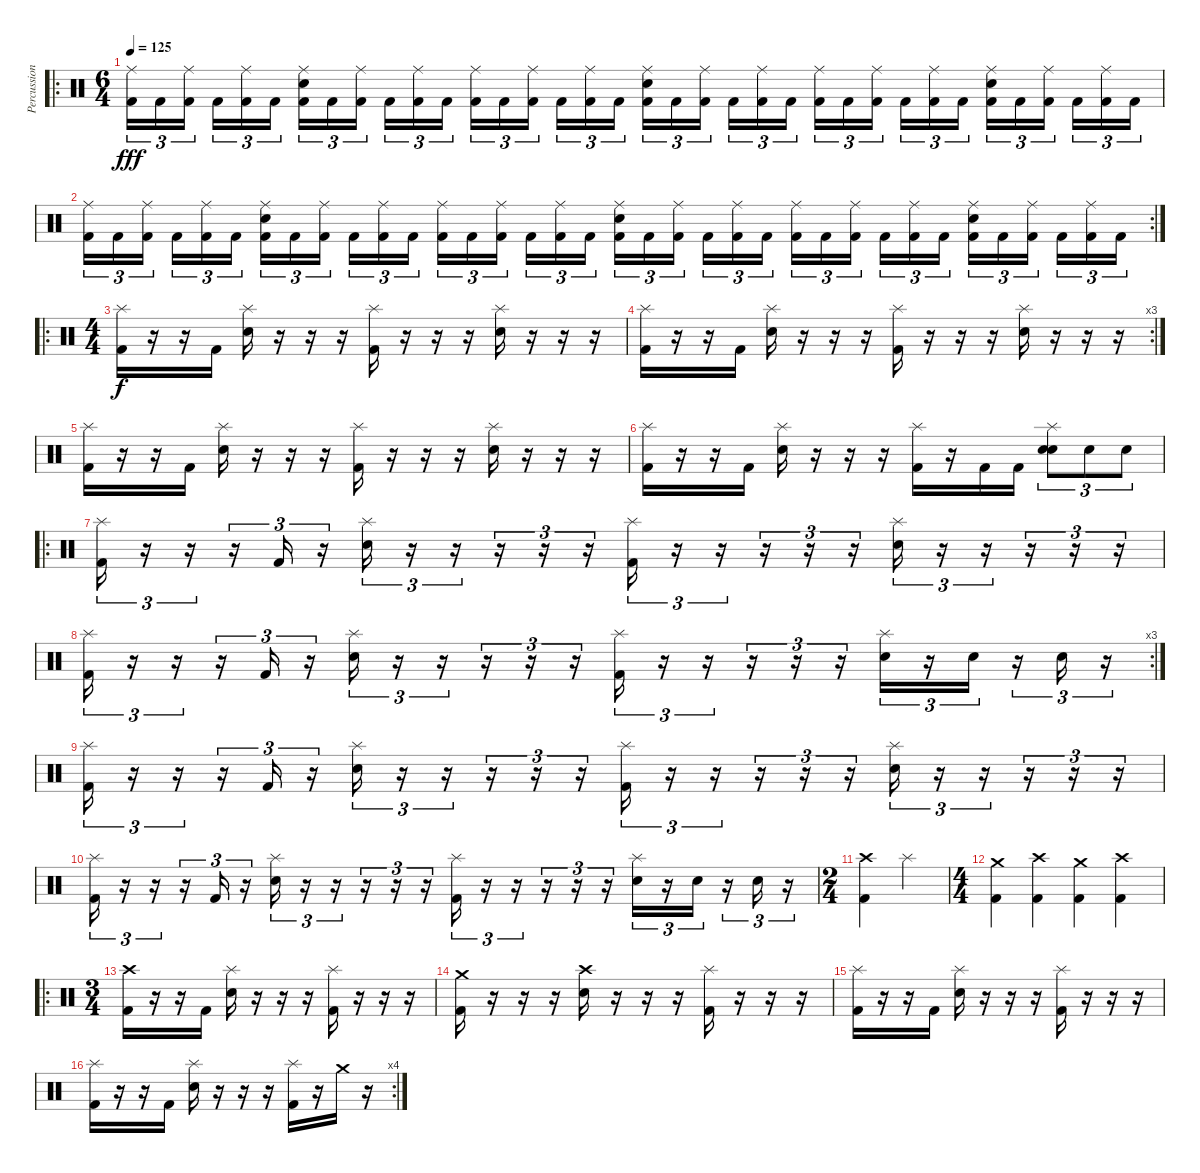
\track ("Percussions" "Percussion") {instrument percussion}
\staff {score}
\articulation defaults
\ro
\ts (6 4)
\tempo 125
\clef neutral
\ks c
("Ride (middle)" "Kick (hit) 2").16{tu (3 2) dy fff} "Kick (hit) 2".16{tu (3 2)} ("Ride (middle)" "Kick (hit) 2").16{tu (3 2)} "Kick (hit) 2".16{tu (3 2)} ("Ride (middle)" "Kick (hit) 2").16{tu (3 2)} "Kick (hit) 2".16{tu (3 2)} ("Ride (middle)" "Snare (hit) 2" "Kick (hit) 2").16{tu (3 2)} "Kick (hit) 2".16{tu (3 2)} ("Ride (middle)" "Kick (hit) 2").16{tu (3 2)} "Kick (hit) 2".16{tu (3 2)} ("Ride (middle)" "Kick (hit) 2").16{tu (3 2)} "Kick (hit) 2".16{tu (3 2)} ("Ride (middle)" "Kick (hit) 2").16{tu (3 2)} "Kick (hit) 2".16{tu (3 2)} ("Ride (middle)" "Kick (hit) 2").16{tu (3 2)} "Kick (hit) 2".16{tu (3 2)} ("Ride (middle)" "Kick (hit) 2").16{tu (3 2)} "Kick (hit) 2".16{tu (3 2)} ("Ride (middle)" "Snare (hit) 2" "Kick (hit) 2").16{tu (3 2)} "Kick (hit) 2".16{tu (3 2)} ("Ride (middle)" "Kick (hit) 2").16{tu (3 2)} "Kick (hit) 2".16{tu (3 2)} ("Ride (middle)" "Kick (hit) 2").16{tu (3 2)} "Kick (hit) 2".16{tu (3 2)} ("Ride (middle)" "Kick (hit) 2").16{tu (3 2)} "Kick (hit) 2".16{tu (3 2)} ("Ride (middle)" "Kick (hit) 2").16{tu (3 2)} "Kick (hit) 2".16{tu (3 2)} ("Ride (middle)" "Kick (hit) 2").16{tu (3 2)} "Kick (hit) 2".16{tu (3 2)} ("Ride (middle)" "Snare (hit) 2" "Kick (hit) 2").16{tu (3 2)} "Kick (hit) 2".16{tu (3 2)} ("Ride (middle)" "Kick (hit) 2").16{tu (3 2)} "Kick (hit) 2".16{tu (3 2)} ("Ride (middle)" "Kick (hit) 2").16{tu (3 2)} "Kick (hit) 2".16{tu (3 2)} |
\rc 2
("Ride (middle)" "Kick (hit) 2").16{tu (3 2)} "Kick (hit) 2".16{tu (3 2)} ("Ride (middle)" "Kick (hit) 2").16{tu (3 2)} "Kick (hit) 2".16{tu (3 2)} ("Ride (middle)" "Kick (hit) 2").16{tu (3 2)} "Kick (hit) 2".16{tu (3 2)} ("Ride (middle)" "Snare (hit) 2" "Kick (hit) 2").16{tu (3 2)} "Kick (hit) 2".16{tu (3 2)} ("Ride (middle)" "Kick (hit) 2").16{tu (3 2)} "Kick (hit) 2".16{tu (3 2)} ("Ride (middle)" "Kick (hit) 2").16{tu (3 2)} "Kick (hit) 2".16{tu (3 2)} ("Ride (middle)" "Kick (hit) 2").16{tu (3 2)} "Kick (hit) 2".16{tu (3 2)} ("Ride (middle)" "Kick (hit) 2").16{tu (3 2)} "Kick (hit) 2".16{tu (3 2)} ("Ride (middle)" "Kick (hit) 2").16{tu (3 2)} "Kick (hit) 2".16{tu (3 2)} ("Ride (middle)" "Snare (hit) 2" "Kick (hit) 2").16{tu (3 2)} "Kick (hit) 2".16{tu (3 2)} ("Ride (middle)" "Kick (hit) 2").16{tu (3 2)} "Kick (hit) 2".16{tu (3 2)} ("Ride (middle)" "Kick (hit) 2").16{tu (3 2)} "Kick (hit) 2".16{tu (3 2)} ("Ride (middle)" "Kick (hit) 2").16{tu (3 2)} "Kick (hit) 2".16{tu (3 2)} ("Ride (middle)" "Kick (hit) 2").16{tu (3 2)} "Kick (hit) 2".16{tu (3 2)} ("Ride (middle)" "Kick (hit) 2").16{tu (3 2)} "Kick (hit) 2".16{tu (3 2)} ("Ride (middle)" "Snare (hit) 2" "Kick (hit) 2").16{tu (3 2)} "Kick (hit) 2".16{tu (3 2)} ("Ride (middle)" "Kick (hit) 2").16{tu (3 2)} "Kick (hit) 2".16{tu (3 2)} ("Ride (middle)" "Kick (hit) 2").16{tu (3 2)} "Kick (hit) 2".16{tu (3 2)} |
\ro
\ts (4 4)
("Splash (hit)" "Kick (hit) 2").16{dy f} r.16 r.16 "Kick (hit) 2".16 ("Splash (hit)" "Snare (hit) 2").16 r.16 r.16 r.16 ("Splash (hit)" "Kick (hit) 2").16 r.16 r.16 r.16 ("Splash (hit)" "Snare (hit) 2").16 r.16 r.16 r.16 |
\rc 3
("Splash (hit)" "Kick (hit) 2").16 r.16 r.16 "Kick (hit) 2".16 ("Splash (hit)" "Snare (hit) 2").16 r.16 r.16 r.16 ("Splash (hit)" "Kick (hit) 2").16 r.16 r.16 r.16 ("Splash (hit)" "Snare (hit) 2").16 r.16 r.16 r.16 |
("Splash (hit)" "Kick (hit) 2").16 r.16 r.16 "Kick (hit) 2".16 ("Splash (hit)" "Snare (hit) 2").16 r.16 r.16 r.16 ("Splash (hit)" "Kick (hit) 2").16 r.16 r.16 r.16 ("Splash (hit)" "Snare (hit) 2").16 r.16 r.16 r.16 |
("Splash (hit)" "Kick (hit) 2").16 r.16 r.16 "Kick (hit) 2".16 ("Splash (hit)" "Snare (hit) 2").16 r.16 r.16 r.16 ("Splash (hit)" "Kick (hit) 2").16 r.16 "Kick (hit) 2".16 "Kick (hit) 2".16 ("Splash (hit)" "Snare (hit) 2" "Snare (hit) 2").8{tu (3 2)} "Snare (hit) 2".8{tu (3 2)} "Snare (hit) 2".8{tu (3 2)} |
\ro
("Splash (hit)" "Kick (hit) 2").16{tu (3 2)} r.16{tu (3 2)} r.16{tu (3 2)} r.16{tu (3 2)} "Kick (hit) 2".16{tu (3 2)} r.16{tu (3 2)} ("Splash (hit)" "Snare (hit) 2").16{tu (3 2)} r.16{tu (3 2)} r.16{tu (3 2)} r.16{tu (3 2)} r.16{tu (3 2)} r.16{tu (3 2)} ("Splash (hit)" "Kick (hit) 2").16{tu (3 2)} r.16{tu (3 2)} r.16{tu (3 2)} r.16{tu (3 2)} r.16{tu (3 2)} r.16{tu (3 2)} ("Splash (hit)" "Snare (hit) 2").16{tu (3 2)} r.16{tu (3 2)} r.16{tu (3 2)} r.16{tu (3 2)} r.16{tu (3 2)} r.16{tu (3 2)} |
\rc 3
("Splash (hit)" "Kick (hit) 2").16{tu (3 2)} r.16{tu (3 2)} r.16{tu (3 2)} r.16{tu (3 2)} "Kick (hit) 2".16{tu (3 2)} r.16{tu (3 2)} ("Splash (hit)" "Snare (hit) 2").16{tu (3 2)} r.16{tu (3 2)} r.16{tu (3 2)} r.16{tu (3 2)} r.16{tu (3 2)} r.16{tu (3 2)} ("Splash (hit)" "Kick (hit) 2").16{tu (3 2)} r.16{tu (3 2)} r.16{tu (3 2)} r.16{tu (3 2)} r.16{tu (3 2)} r.16{tu (3 2)} ("Splash (hit)" "Snare (hit) 2").16{tu (3 2)} r.16{tu (3 2)} "Snare (hit) 2".16{tu (3 2)} r.16{tu (3 2)} "Snare (hit) 2".16{tu (3 2)} r.16{tu (3 2)} |
("Splash (hit)" "Kick (hit) 2").16{tu (3 2)} r.16{tu (3 2)} r.16{tu (3 2)} r.16{tu (3 2)} "Kick (hit) 2".16{tu (3 2)} r.16{tu (3 2)} ("Splash (hit)" "Snare (hit) 2").16{tu (3 2)} r.16{tu (3 2)} r.16{tu (3 2)} r.16{tu (3 2)} r.16{tu (3 2)} r.16{tu (3 2)} ("Splash (hit)" "Kick (hit) 2").16{tu (3 2)} r.16{tu (3 2)} r.16{tu (3 2)} r.16{tu (3 2)} r.16{tu (3 2)} r.16{tu (3 2)} ("Splash (hit)" "Snare (hit) 2").16{tu (3 2)} r.16{tu (3 2)} r.16{tu (3 2)} r.16{tu (3 2)} r.16{tu (3 2)} r.16{tu (3 2)} |
("Splash (hit)" "Kick (hit) 2").16{tu (3 2)} r.16{tu (3 2)} r.16{tu (3 2)} r.16{tu (3 2)} "Kick (hit) 2".16{tu (3 2)} r.16{tu (3 2)} ("Splash (hit)" "Snare (hit) 2").16{tu (3 2)} r.16{tu (3 2)} r.16{tu (3 2)} r.16{tu (3 2)} r.16{tu (3 2)} r.16{tu (3 2)} ("Splash (hit)" "Kick (hit) 2").16{tu (3 2)} r.16{tu (3 2)} r.16{tu (3 2)} r.16{tu (3 2)} r.16{tu (3 2)} r.16{tu (3 2)} ("Splash (hit)" "Snare (hit) 2").16{tu (3 2)} r.16{tu (3 2)} "Snare (hit) 2".16{tu (3 2)} r.16{tu (3 2)} "Snare (hit) 2".16{tu (3 2)} r.16{tu (3 2)} |
\ts (2 4)
("Crash high (hit)" "Kick (hit) 2").4 "Splash (hit)".4 |
\ts (4 4)
("Crash medium (hit)" "Kick (hit) 2").4 ("Crash high (hit)" "Kick (hit) 2").4 ("Crash medium (hit)" "Kick (hit) 2").4 ("Crash high (hit)" "Kick (hit) 2").4 |
\ro
\ts (3 4)
("Crash high (hit)" "Kick (hit) 2").16 r.16 r.16 "Kick (hit) 2".16 ("Splash (hit)" "Snare (hit) 2").16 r.16 r.16 r.16 ("Splash (hit)" "Kick (hit) 2").16 r.16 r.16 r.16 |
("Crash medium (hit)" "Kick (hit) 2").16 r.16 r.16 r.16 ("Crash high (hit)" "Snare (hit) 2").16 r.16 r.16 r.16 ("Splash (hit)" "Kick (hit) 2").16 r.16 r.16 r.16 |
("Splash (hit)" "Kick (hit) 2").16 r.16 r.16 "Kick (hit) 2".16 ("Splash (hit)" "Snare (hit) 2").16 r.16 r.16 r.16 ("Splash (hit)" "Kick (hit) 2").16 r.16 r.16 r.16 |
\rc 4
("Splash (hit)" "Kick (hit) 2").16 r.16 r.16 "Kick (hit) 2".16 ("Splash (hit)" "Snare (hit) 2").16 r.16 r.16 r.16 ("Splash (hit)" "Kick (hit) 2").16 r.16 "Crash medium (hit)".16 r.16
